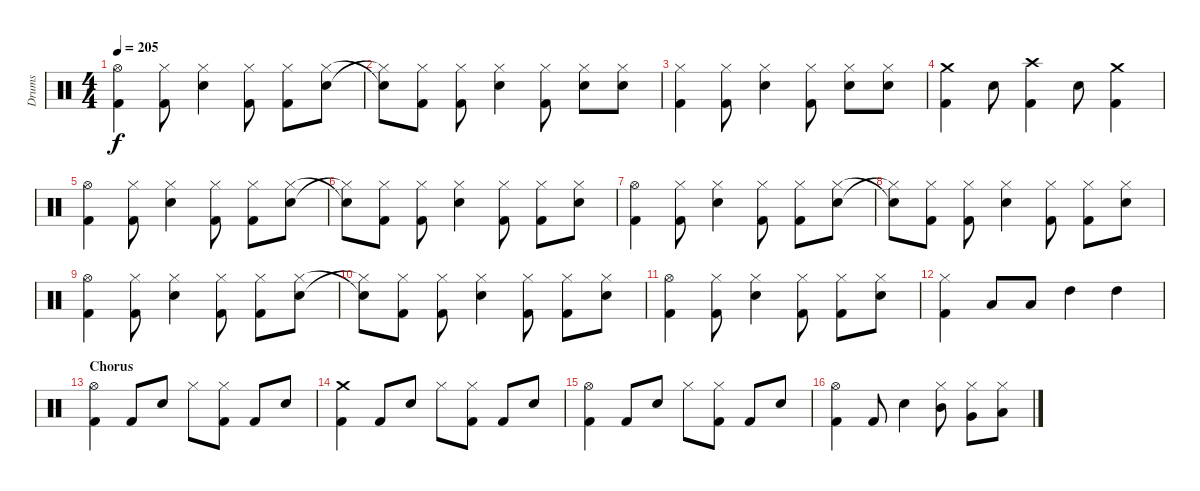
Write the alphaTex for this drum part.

\track ("Drums" "Drums") {instrument percussion}
\staff {score}
\articulation defaults
\ts (4 4)
\tempo 205
\clef neutral
\ks c
("Hi-Hat (open)" "Kick (hit) 2").4{dy f} ("Hi-Hat (closed)" "Kick (hit) 2").8 ("Hi-Hat (closed)" "Electric Snare (hit)").4 ("Hi-Hat (closed)" "Kick (hit) 2").8 ("Hi-Hat (closed)" "Kick (hit) 2").8 ("Hi-Hat (closed)" "Electric Snare (hit)").8 |
("Snare (hit)"{t} "Hi-Hat (closed)"{t}).8 ("Hi-Hat (closed)" "Kick (hit) 2").8 ("Hi-Hat (closed)" "Kick (hit) 2").8 ("Hi-Hat (closed)" "Electric Snare (hit)").4 ("Hi-Hat (closed)" "Kick (hit) 2").8 ("Hi-Hat (closed)" "Electric Snare (hit)").8 ("Hi-Hat (closed)" "Electric Snare (hit)").8 |
("Hi-Hat (closed)" "Kick (hit) 2").4 ("Kick (hit) 2" "Hi-Hat (closed)").8 ("Hi-Hat (closed)" "Electric Snare (hit)").4 ("Hi-Hat (closed)" "Kick (hit) 2").8 ("Electric Snare (hit)" "Hi-Hat (closed)").8 ("Electric Snare (hit)" "Hi-Hat (closed)").8 |
("Crash medium (hit)" "Kick (hit) 2").4 "Electric Snare (hit)".8 ("Crash high (hit)" "Kick (hit) 2").4 "Electric Snare (hit)".8 ("Crash medium (hit)" "Kick (hit) 2").4 |
("Hi-Hat (open)" "Kick (hit) 2").4 ("Hi-Hat (closed)" "Kick (hit) 2").8 ("Hi-Hat (closed)" "Electric Snare (hit)").4 ("Hi-Hat (closed)" "Kick (hit) 2").8 ("Hi-Hat (closed)" "Kick (hit) 2").8 ("Hi-Hat (closed)" "Electric Snare (hit)").8 |
("Snare (hit)"{t} "Hi-Hat (closed)"{t}).8 ("Hi-Hat (closed)" "Kick (hit) 2").8 ("Hi-Hat (closed)" "Kick (hit) 2").8 ("Hi-Hat (closed)" "Electric Snare (hit)").4 ("Hi-Hat (closed)" "Kick (hit) 2").8 ("Hi-Hat (closed)" "Kick (hit) 2").8 ("Hi-Hat (closed)" "Electric Snare (hit)").8 |
("Hi-Hat (open)" "Kick (hit) 2").4 ("Hi-Hat (closed)" "Kick (hit) 2").8 ("Hi-Hat (closed)" "Electric Snare (hit)").4 ("Hi-Hat (closed)" "Kick (hit) 2").8 ("Hi-Hat (closed)" "Kick (hit) 2").8 ("Hi-Hat (closed)" "Electric Snare (hit)").8 |
("Snare (hit)"{t} "Hi-Hat (closed)"{t}).8 ("Hi-Hat (closed)" "Kick (hit) 2").8 ("Hi-Hat (closed)" "Kick (hit) 2").8 ("Hi-Hat (closed)" "Electric Snare (hit)").4 ("Hi-Hat (closed)" "Kick (hit) 2").8 ("Hi-Hat (closed)" "Kick (hit) 2").8 ("Hi-Hat (closed)" "Electric Snare (hit)").8 |
("Hi-Hat (open)" "Kick (hit) 2").4 ("Hi-Hat (closed)" "Kick (hit) 2").8 ("Hi-Hat (closed)" "Electric Snare (hit)").4 ("Hi-Hat (closed)" "Kick (hit) 2").8 ("Hi-Hat (closed)" "Kick (hit) 2").8 ("Hi-Hat (closed)" "Electric Snare (hit)").8 |
("Snare (hit)"{t} "Hi-Hat (closed)"{t}).8 ("Hi-Hat (closed)" "Kick (hit) 2").8 ("Hi-Hat (closed)" "Kick (hit) 2").8 ("Hi-Hat (closed)" "Electric Snare (hit)").4 ("Hi-Hat (closed)" "Kick (hit) 2").8 ("Hi-Hat (closed)" "Kick (hit) 2").8 ("Hi-Hat (closed)" "Electric Snare (hit)").8 |
("Hi-Hat (open)" "Kick (hit) 2").4 ("Hi-Hat (closed)" "Kick (hit) 2").8 ("Hi-Hat (closed)" "Electric Snare (hit)").4 ("Hi-Hat (closed)" "Kick (hit) 2").8 ("Hi-Hat (closed)" "Kick (hit) 2").8 ("Hi-Hat (closed)" "Electric Snare (hit)").8 |
("Hi-Hat (closed)" "Kick (hit) 2").4 "Low Tom (hit)".8 "Low Tom (hit)".8 "High Tom (hit)".4 "High Tom (hit)".4 |
\section ("" "Chorus")
("Hi-Hat (open)" "Kick (hit) 2").4 "Kick (hit) 2".8 "Electric Snare (hit)".8 "Hi-Hat (closed)".8 ("Hi-Hat (closed)" "Kick (hit) 2").8 "Kick (hit) 2".8 "Electric Snare (hit)".8 |
("Crash medium (hit)" "Kick (hit) 2").4 "Kick (hit) 2".8 "Electric Snare (hit)".8 "Hi-Hat (closed)".8 ("Hi-Hat (closed)" "Kick (hit) 2").8 "Kick (hit) 2".8 "Electric Snare (hit)".8 |
("Hi-Hat (open)" "Kick (hit) 2").4 "Kick (hit) 2".8 "Electric Snare (hit)".8 "Hi-Hat (closed)".8 ("Hi-Hat (closed)" "Kick (hit) 2").8 "Kick (hit) 2".8 "Electric Snare (hit)".8 |
("Hi-Hat (open)" "Kick (hit) 2").4 "Kick (hit) 2".8 "Electric Snare (hit)".4 ("Hi-Hat (closed)" "Mid Tom (hit)").8 ("Hi-Hat (closed)" "Very Low Tom (hit)").8 ("Hi-Hat (closed)" "Low Tom (hit)").8
